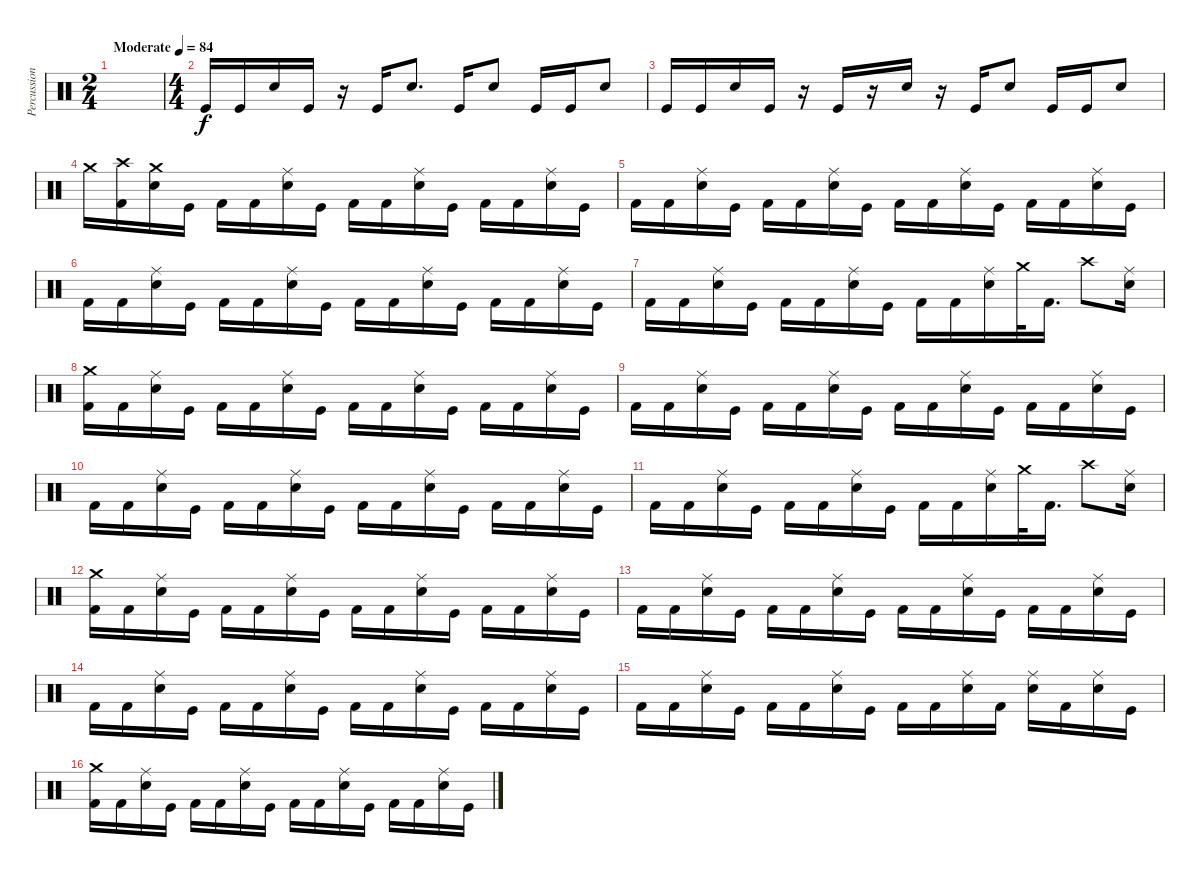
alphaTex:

\track ("Percussion" "Percussion") {instrument percussion}
\staff {score}
\articulation defaults
\ts (2 4)
\tempo (84 "Moderate")
\clef neutral
\ks c
|
\ts (4 4)
"Kick (hit)".16 "Kick (hit)".16 "Snare (hit) 2".16 "Kick (hit)".16 r.16 "Kick (hit)".16 "Snare (hit) 2".8{d} "Kick (hit)".16 "Snare (hit) 2".8 "Kick (hit)".16 "Kick (hit)".16 "Snare (hit) 2".8 |
"Kick (hit)".16 "Kick (hit)".16 "Snare (hit) 2".16 "Kick (hit)".16 r.16 "Kick (hit)".16 r.16 "Snare (hit) 2".16 r.16 "Kick (hit)".16 "Snare (hit) 2".8 "Kick (hit)".16 "Kick (hit)".16 "Snare (hit) 2".8 |
"Crash medium (hit)".16 ("Kick (hit) 2" "Crash high (hit)").16 ("Snare (hit) 2" "Crash medium (hit)").16 "Kick (hit)".16 "Kick (hit) 2".16 "Kick (hit) 2".16 ("Snare (hit) 2" "Ride (middle)").16 "Kick (hit)".16 "Kick (hit) 2".16 "Kick (hit) 2".16 ("Snare (hit) 2" "Ride (middle)").16 "Kick (hit)".16 "Kick (hit) 2".16 "Kick (hit) 2".16 ("Snare (hit) 2" "Ride (middle)").16 "Kick (hit)".16 |
"Kick (hit) 2".16 "Kick (hit) 2".16 ("Snare (hit) 2" "Ride (middle)").16 "Kick (hit)".16 "Kick (hit) 2".16 "Kick (hit) 2".16 ("Snare (hit) 2" "Ride (middle)").16 "Kick (hit)".16 "Kick (hit) 2".16 "Kick (hit) 2".16 ("Snare (hit) 2" "Ride (middle)").16 "Kick (hit)".16 "Kick (hit) 2".16 "Kick (hit) 2".16 ("Snare (hit) 2" "Ride (middle)").16 "Kick (hit)".16 |
"Kick (hit) 2".16 "Kick (hit) 2".16 ("Snare (hit) 2" "Ride (middle)").16 "Kick (hit)".16 "Kick (hit) 2".16 "Kick (hit) 2".16 ("Snare (hit) 2" "Ride (middle)").16 "Kick (hit)".16 "Kick (hit) 2".16 "Kick (hit) 2".16 ("Snare (hit) 2" "Ride (middle)").16 "Kick (hit)".16 "Kick (hit) 2".16 "Kick (hit) 2".16 ("Snare (hit) 2" "Ride (middle)").16 "Kick (hit)".16 |
"Kick (hit) 2".16 "Kick (hit) 2".16 ("Snare (hit) 2" "Ride (middle)").16 "Kick (hit)".16 "Kick (hit) 2".16 "Kick (hit) 2".16 ("Snare (hit) 2" "Ride (middle)").16 "Kick (hit)".16 "Kick (hit) 2".16 "Kick (hit) 2".16 ("Snare (hit) 2" "Ride (middle)").16 "Crash medium (hit)".32 "Kick (hit) 2".16{d} "Crash high (hit)".8 ("Snare (hit) 2" "Ride (middle)").16 |
("Kick (hit) 2" "Crash medium (hit)").16 "Kick (hit) 2".16 ("Snare (hit) 2" "Ride (middle)").16 "Kick (hit)".16 "Kick (hit) 2".16 "Kick (hit) 2".16 ("Snare (hit) 2" "Ride (middle)").16 "Kick (hit)".16 "Kick (hit) 2".16 "Kick (hit) 2".16 ("Snare (hit) 2" "Ride (middle)").16 "Kick (hit)".16 "Kick (hit) 2".16 "Kick (hit) 2".16 ("Snare (hit) 2" "Ride (middle)").16 "Kick (hit)".16 |
"Kick (hit) 2".16 "Kick (hit) 2".16 ("Snare (hit) 2" "Ride (middle)").16 "Kick (hit)".16 "Kick (hit) 2".16 "Kick (hit) 2".16 ("Snare (hit) 2" "Ride (middle)").16 "Kick (hit)".16 "Kick (hit) 2".16 "Kick (hit) 2".16 ("Snare (hit) 2" "Ride (middle)").16 "Kick (hit)".16 "Kick (hit) 2".16 "Kick (hit) 2".16 ("Snare (hit) 2" "Ride (middle)").16 "Kick (hit)".16 |
"Kick (hit) 2".16 "Kick (hit) 2".16 ("Snare (hit) 2" "Ride (middle)").16 "Kick (hit)".16 "Kick (hit) 2".16 "Kick (hit) 2".16 ("Snare (hit) 2" "Ride (middle)").16 "Kick (hit)".16 "Kick (hit) 2".16 "Kick (hit) 2".16 ("Snare (hit) 2" "Ride (middle)").16 "Kick (hit)".16 "Kick (hit) 2".16 "Kick (hit) 2".16 ("Snare (hit) 2" "Ride (middle)").16 "Kick (hit)".16 |
"Kick (hit) 2".16 "Kick (hit) 2".16 ("Snare (hit) 2" "Ride (middle)").16 "Kick (hit)".16 "Kick (hit) 2".16 "Kick (hit) 2".16 ("Snare (hit) 2" "Ride (middle)").16 "Kick (hit)".16 "Kick (hit) 2".16 "Kick (hit) 2".16 ("Snare (hit) 2" "Ride (middle)").16 "Crash medium (hit)".32 "Kick (hit) 2".16{d} "Crash high (hit)".8 ("Snare (hit) 2" "Ride (middle)").16 |
("Kick (hit) 2" "Crash medium (hit)").16 "Kick (hit) 2".16 ("Snare (hit) 2" "Ride (middle)").16 "Kick (hit)".16 "Kick (hit) 2".16 "Kick (hit) 2".16 ("Snare (hit) 2" "Ride (middle)").16 "Kick (hit)".16 "Kick (hit) 2".16 "Kick (hit) 2".16 ("Snare (hit) 2" "Ride (middle)").16 "Kick (hit)".16 "Kick (hit) 2".16 "Kick (hit) 2".16 ("Snare (hit) 2" "Ride (middle)").16 "Kick (hit)".16 |
"Kick (hit) 2".16 "Kick (hit) 2".16 ("Snare (hit) 2" "Ride (middle)").16 "Kick (hit)".16 "Kick (hit) 2".16 "Kick (hit) 2".16 ("Snare (hit) 2" "Ride (middle)").16 "Kick (hit)".16 "Kick (hit) 2".16 "Kick (hit) 2".16 ("Snare (hit) 2" "Ride (middle)").16 "Kick (hit)".16 "Kick (hit) 2".16 "Kick (hit) 2".16 ("Snare (hit) 2" "Ride (middle)").16 "Kick (hit)".16 |
"Kick (hit) 2".16 "Kick (hit) 2".16 ("Snare (hit) 2" "Ride (middle)").16 "Kick (hit)".16 "Kick (hit) 2".16 "Kick (hit) 2".16 ("Snare (hit) 2" "Ride (middle)").16 "Kick (hit)".16 "Kick (hit) 2".16 "Kick (hit) 2".16 ("Snare (hit) 2" "Ride (middle)").16 "Kick (hit)".16 "Kick (hit) 2".16 "Kick (hit) 2".16 ("Snare (hit) 2" "Ride (middle)").16 "Kick (hit)".16 |
"Kick (hit) 2".16 "Kick (hit) 2".16 ("Snare (hit) 2" "Ride (middle)").16 "Kick (hit)".16 "Kick (hit) 2".16 "Kick (hit) 2".16 ("Snare (hit) 2" "Ride (middle)").16 "Kick (hit)".16 "Kick (hit) 2".16 "Kick (hit) 2".16 ("Snare (hit) 2" "Ride (middle)").16 "Kick (hit) 2".16 ("Snare (hit) 2" "Ride (middle)").16 "Kick (hit) 2".16 ("Snare (hit) 2" "Ride (middle)").16 "Kick (hit)".16 |
("Kick (hit) 2" "Crash medium (hit)").16 "Kick (hit) 2".16 ("Snare (hit) 2" "Ride (middle)").16 "Kick (hit)".16 "Kick (hit) 2".16 "Kick (hit) 2".16 ("Snare (hit) 2" "Ride (middle)").16 "Kick (hit)".16 "Kick (hit) 2".16 "Kick (hit) 2".16 ("Snare (hit) 2" "Ride (middle)").16 "Kick (hit)".16 "Kick (hit) 2".16 "Kick (hit) 2".16 ("Snare (hit) 2" "Ride (middle)").16 "Kick (hit)".16
